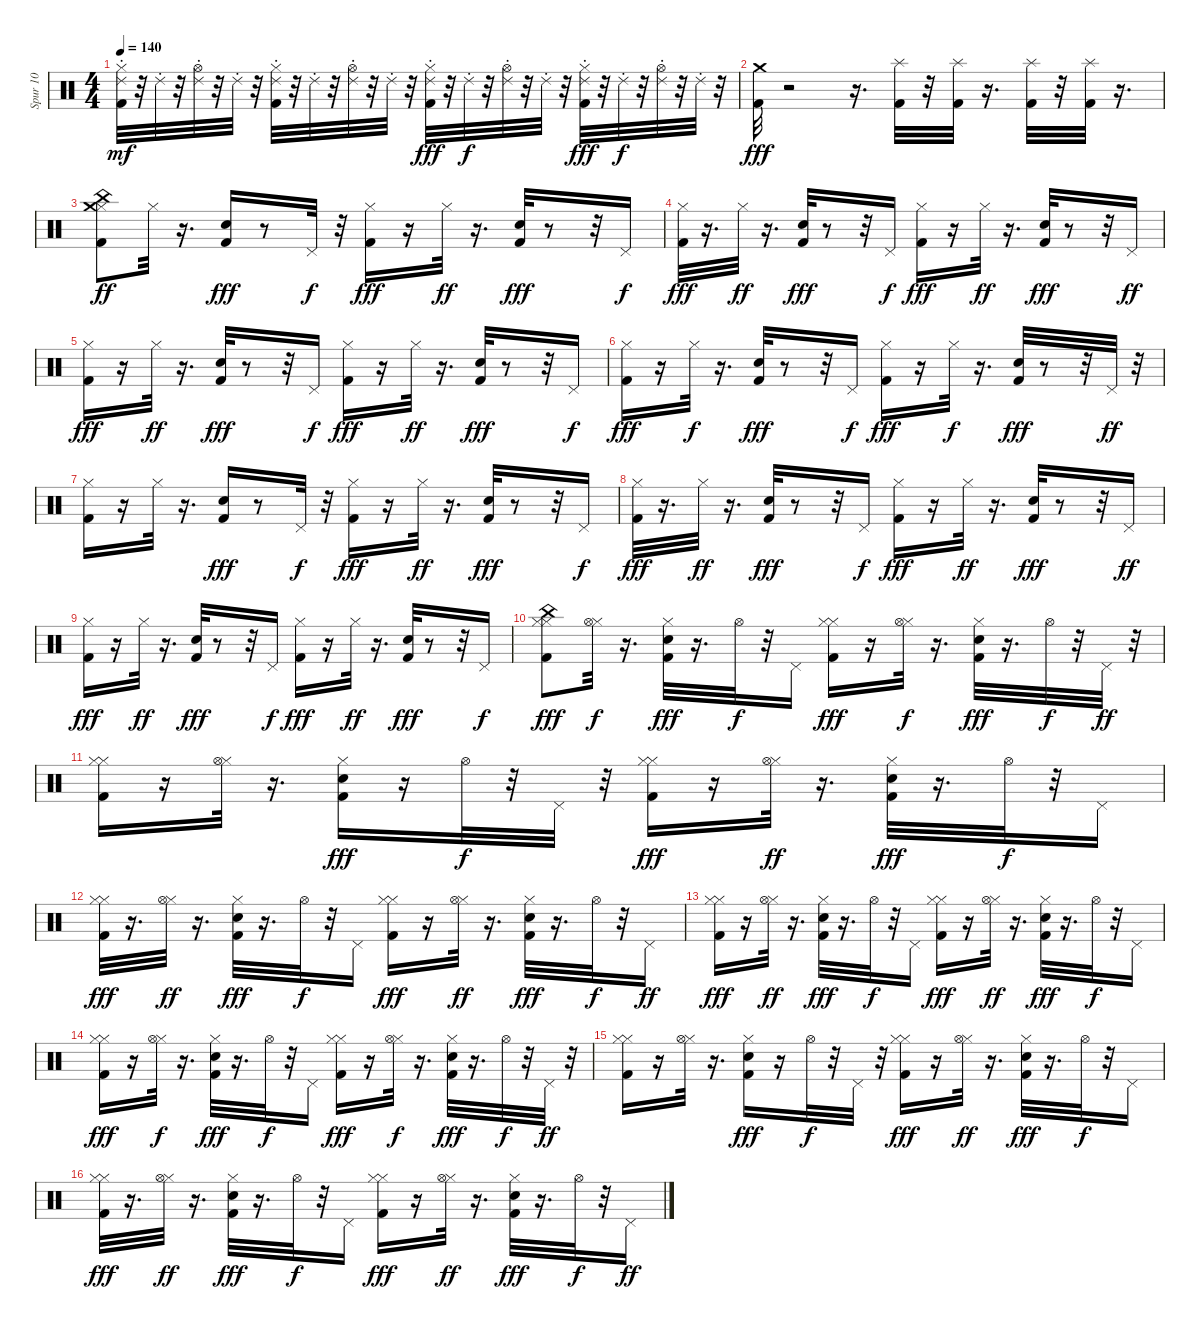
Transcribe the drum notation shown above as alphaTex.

\track ("Spur 10" "Spur 10") {instrument percussion}
\staff {score}
\articulation defaults
\ts (4 4)
\tempo 140
\clef neutral
\ks c
("Kick (hit) 2" "Hi-Hat (closed)" "Ride (choke) 2").32{dy mf} r.32 "Ride (choke) 2".32 r.32 ("Hi-Hat (open)" "Ride (choke) 2").32 r.32 "Ride (choke) 2".32 r.32 ("Kick (hit) 2" "Hi-Hat (closed)" "Ride (choke) 2").32 r.32 "Ride (choke) 2".32 r.32 ("Hi-Hat (open)" "Ride (choke) 2").32 r.32 "Ride (choke) 2".32 r.32 ("Kick (hit) 2" "Hi-Hat (closed)" "Ride (choke) 2").32{dy fff} r.32 "Ride (choke) 2".32{dy f} r.32 ("Hi-Hat (open)" "Ride (choke) 2").32 r.32 "Ride (choke) 2".32 r.32 ("Kick (hit) 2" "Hi-Hat (closed)" "Ride (choke) 2").32{dy fff} r.32 "Ride (choke) 2".32{dy f} r.32 ("Hi-Hat (open)" "Ride (choke) 2").32 r.32 "Ride (choke) 2".32 r.32 |
("Crash medium (hit)" "Kick (hit) 2").32{dy fff} r.2 r.16{d} ("Splash (hit)" "Kick (hit) 2").32 r.32 ("Splash (hit)" "Kick (hit) 2").32 r.16{d} ("Splash (hit)" "Kick (hit) 2").32 r.32 ("Splash (hit)" "Kick (hit) 2").32 r.16{d} |
("Kick (hit) 2" "Hi-Hat (closed)" "China (hit)" "Crash medium (hit)").8{dy ff} "Hi-Hat (closed)".32 r.16{d} ("Kick (hit) 2" "Hand Clap (hit)").16{dy fff} r.8 "Pedal Hi-Hat (hit)".32{dy f} r.32 ("Kick (hit) 2" "Hi-Hat (closed)").16{dy fff} r.16 "Hi-Hat (closed)".32{dy ff} r.16{d} ("Kick (hit) 2" "Hand Clap (hit)").32{dy fff} r.8 r.32 "Pedal Hi-Hat (hit)".16{dy f} |
("Kick (hit) 2" "Hi-Hat (closed)").32{dy fff} r.16{d} "Hi-Hat (closed)".32{dy ff} r.16{d} ("Kick (hit) 2" "Hand Clap (hit)").32{dy fff} r.8 r.32 "Pedal Hi-Hat (hit)".16{dy f} ("Kick (hit) 2" "Hi-Hat (closed)").16{dy fff} r.16 "Hi-Hat (closed)".32{dy ff} r.16{d} ("Kick (hit) 2" "Hand Clap (hit)").32{dy fff} r.8 r.32 "Pedal Hi-Hat (hit)".16{dy ff} |
("Kick (hit) 2" "Hi-Hat (closed)").16{dy fff} r.16 "Hi-Hat (closed)".32{dy ff} r.16{d} ("Kick (hit) 2" "Hand Clap (hit)").32{dy fff} r.8 r.32 "Pedal Hi-Hat (hit)".16{dy f} ("Kick (hit) 2" "Hi-Hat (closed)").16{dy fff} r.16 "Hi-Hat (closed)".32{dy ff} r.16{d} ("Kick (hit) 2" "Hand Clap (hit)").32{dy fff} r.8 r.32 "Pedal Hi-Hat (hit)".16{dy f} |
("Kick (hit) 2" "Hi-Hat (closed)").16{dy fff} r.16 "Hi-Hat (closed)".32{dy f} r.16{d} ("Kick (hit) 2" "Hand Clap (hit)").32{dy fff} r.8 r.32 "Pedal Hi-Hat (hit)".16{dy f} ("Kick (hit) 2" "Hi-Hat (closed)").16{dy fff} r.16 "Hi-Hat (closed)".32{dy f} r.16{d} ("Kick (hit) 2" "Hand Clap (hit)").32{dy fff} r.8 r.32 "Pedal Hi-Hat (hit)".32{dy ff} r.32 |
("Kick (hit) 2" "Hi-Hat (closed)").16 r.16 "Hi-Hat (closed)".32 r.16{d} ("Kick (hit) 2" "Hand Clap (hit)").16{dy fff} r.8 "Pedal Hi-Hat (hit)".32{dy f} r.32 ("Kick (hit) 2" "Hi-Hat (closed)").16{dy fff} r.16 "Hi-Hat (closed)".32{dy ff} r.16{d} ("Kick (hit) 2" "Hand Clap (hit)").32{dy fff} r.8 r.32 "Pedal Hi-Hat (hit)".16{dy f} |
("Kick (hit) 2" "Hi-Hat (closed)").32{dy fff} r.16{d} "Hi-Hat (closed)".32{dy ff} r.16{d} ("Kick (hit) 2" "Hand Clap (hit)").32{dy fff} r.8 r.32 "Pedal Hi-Hat (hit)".16{dy f} ("Kick (hit) 2" "Hi-Hat (closed)").16{dy fff} r.16 "Hi-Hat (closed)".32{dy ff} r.16{d} ("Kick (hit) 2" "Hand Clap (hit)").32{dy fff} r.8 r.32 "Pedal Hi-Hat (hit)".16{dy ff} |
("Kick (hit) 2" "Hi-Hat (closed)").16{dy fff} r.16 "Hi-Hat (closed)".32{dy ff} r.16{d} ("Kick (hit) 2" "Hand Clap (hit)").32{dy fff} r.8 r.32 "Pedal Hi-Hat (hit)".16{dy f} ("Kick (hit) 2" "Hi-Hat (closed)").16{dy fff} r.16 "Hi-Hat (closed)".32{dy ff} r.16{d} ("Kick (hit) 2" "Hand Clap (hit)").32{dy fff} r.8 r.32 "Pedal Hi-Hat (hit)".16{dy f} |
("Kick (hit) 2" "Hi-Hat (closed)" "China (hit)" "Hi-Hat (closed)").8{dy fff} ("Hi-Hat (closed)" "Hi-Hat (open)").32{dy f} r.16{d} ("Kick (hit) 2" "Hi-Hat (closed)" "Hand Clap (hit)").32{dy fff} r.16{d} "Hi-Hat (open)".32{dy f} r.32 "Pedal Hi-Hat (hit)".16 ("Kick (hit) 2" "Hi-Hat (closed)" "Hi-Hat (closed)").16{dy fff} r.16 ("Hi-Hat (closed)" "Hi-Hat (open)").32{dy f} r.16{d} ("Kick (hit) 2" "Hi-Hat (closed)" "Hand Clap (hit)").32{dy fff} r.16{d} "Hi-Hat (open)".32{dy f} r.32 "Pedal Hi-Hat (hit)".32{dy ff} r.32 |
("Kick (hit) 2" "Hi-Hat (closed)" "Hi-Hat (closed)").16 r.16 ("Hi-Hat (closed)" "Hi-Hat (open)").32 r.16{d} ("Kick (hit) 2" "Hi-Hat (closed)" "Hand Clap (hit)").16{dy fff} r.16 "Hi-Hat (open)".32{dy f} r.32 "Pedal Hi-Hat (hit)".32 r.32 ("Kick (hit) 2" "Hi-Hat (closed)" "Hi-Hat (closed)").16{dy fff} r.16 ("Hi-Hat (closed)" "Hi-Hat (open)").32{dy ff} r.16{d} ("Kick (hit) 2" "Hi-Hat (closed)" "Hand Clap (hit)").32{dy fff} r.16{d} "Hi-Hat (open)".32{dy f} r.32 "Pedal Hi-Hat (hit)".16 |
("Kick (hit) 2" "Hi-Hat (closed)" "Hi-Hat (closed)").32{dy fff} r.16{d} ("Hi-Hat (closed)" "Hi-Hat (open)").32{dy ff} r.16{d} ("Kick (hit) 2" "Hi-Hat (closed)" "Hand Clap (hit)").32{dy fff} r.16{d} "Hi-Hat (open)".32{dy f} r.32 "Pedal Hi-Hat (hit)".16 ("Kick (hit) 2" "Hi-Hat (closed)" "Hi-Hat (closed)").16{dy fff} r.16 ("Hi-Hat (closed)" "Hi-Hat (open)").32{dy ff} r.16{d} ("Kick (hit) 2" "Hi-Hat (closed)" "Hand Clap (hit)").32{dy fff} r.16{d} "Hi-Hat (open)".32{dy f} r.32 "Pedal Hi-Hat (hit)".16{dy ff} |
("Kick (hit) 2" "Hi-Hat (closed)" "Hi-Hat (closed)").16{dy fff} r.16 ("Hi-Hat (closed)" "Hi-Hat (open)").32{dy ff} r.16{d} ("Kick (hit) 2" "Hi-Hat (closed)" "Hand Clap (hit)").32{dy fff} r.16{d} "Hi-Hat (open)".32{dy f} r.32 "Pedal Hi-Hat (hit)".16 ("Kick (hit) 2" "Hi-Hat (closed)" "Hi-Hat (closed)").16{dy fff} r.16 ("Hi-Hat (closed)" "Hi-Hat (open)").32{dy ff} r.16{d} ("Kick (hit) 2" "Hi-Hat (closed)" "Hand Clap (hit)").32{dy fff} r.16{d} "Hi-Hat (open)".32{dy f} r.32 "Pedal Hi-Hat (hit)".16 |
("Kick (hit) 2" "Hi-Hat (closed)" "Hi-Hat (closed)").16{dy fff} r.16 ("Hi-Hat (closed)" "Hi-Hat (open)").32{dy f} r.16{d} ("Kick (hit) 2" "Hi-Hat (closed)" "Hand Clap (hit)").32{dy fff} r.16{d} "Hi-Hat (open)".32{dy f} r.32 "Pedal Hi-Hat (hit)".16 ("Kick (hit) 2" "Hi-Hat (closed)" "Hi-Hat (closed)").16{dy fff} r.16 ("Hi-Hat (closed)" "Hi-Hat (open)").32{dy f} r.16{d} ("Kick (hit) 2" "Hi-Hat (closed)" "Hand Clap (hit)").32{dy fff} r.16{d} "Hi-Hat (open)".32{dy f} r.32 "Pedal Hi-Hat (hit)".32{dy ff} r.32 |
("Kick (hit) 2" "Hi-Hat (closed)" "Hi-Hat (closed)").16 r.16 ("Hi-Hat (closed)" "Hi-Hat (open)").32 r.16{d} ("Kick (hit) 2" "Hi-Hat (closed)" "Hand Clap (hit)").16{dy fff} r.16 "Hi-Hat (open)".32{dy f} r.32 "Pedal Hi-Hat (hit)".32 r.32 ("Kick (hit) 2" "Hi-Hat (closed)" "Hi-Hat (closed)").16{dy fff} r.16 ("Hi-Hat (closed)" "Hi-Hat (open)").32{dy ff} r.16{d} ("Kick (hit) 2" "Hi-Hat (closed)" "Hand Clap (hit)").32{dy fff} r.16{d} "Hi-Hat (open)".32{dy f} r.32 "Pedal Hi-Hat (hit)".16 |
("Kick (hit) 2" "Hi-Hat (closed)" "Hi-Hat (closed)").32{dy fff} r.16{d} ("Hi-Hat (closed)" "Hi-Hat (open)").32{dy ff} r.16{d} ("Kick (hit) 2" "Hi-Hat (closed)" "Hand Clap (hit)").32{dy fff} r.16{d} "Hi-Hat (open)".32{dy f} r.32 "Pedal Hi-Hat (hit)".16 ("Kick (hit) 2" "Hi-Hat (closed)" "Hi-Hat (closed)").16{dy fff} r.16 ("Hi-Hat (closed)" "Hi-Hat (open)").32{dy ff} r.16{d} ("Kick (hit) 2" "Hi-Hat (closed)" "Hand Clap (hit)").32{dy fff} r.16{d} "Hi-Hat (open)".32{dy f} r.32 "Pedal Hi-Hat (hit)".16{dy ff}
